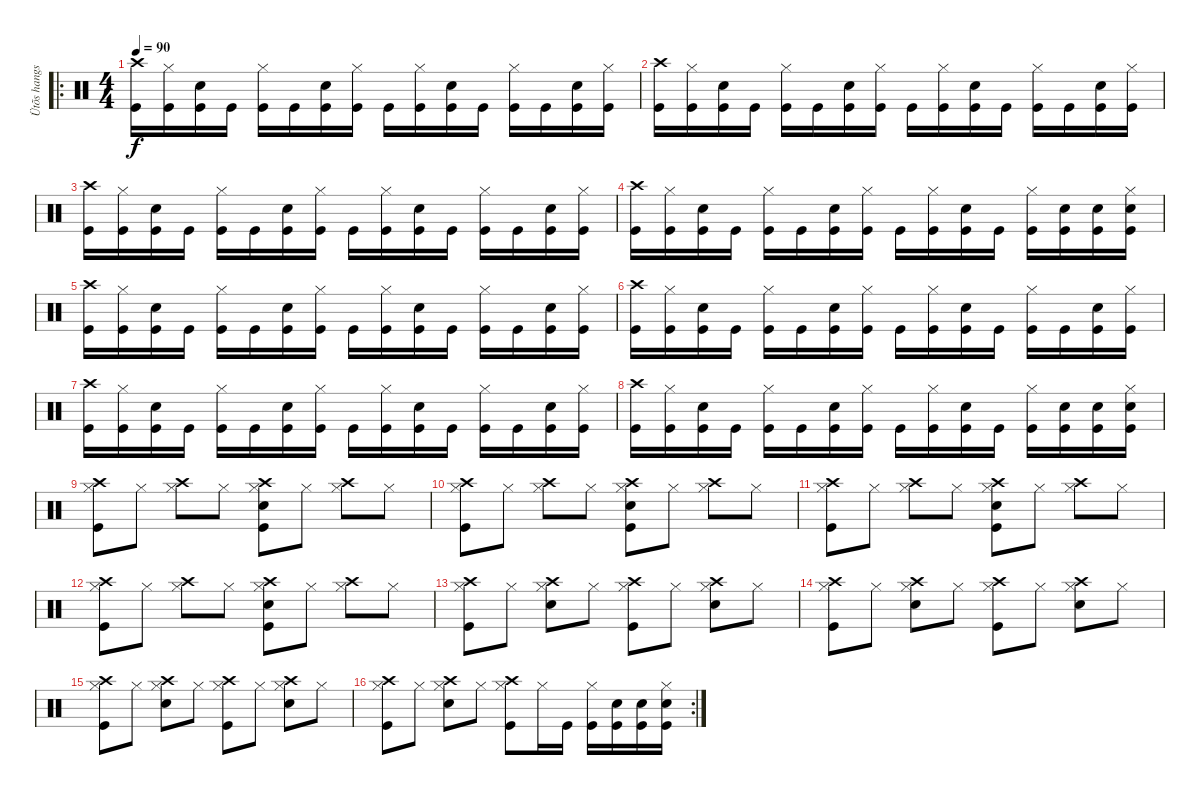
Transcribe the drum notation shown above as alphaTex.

\track ("Ütõs hangszer" "Ütõs hangs") {instrument percussion}
\staff {score}
\articulation defaults
\ro
\ts (4 4)
\tempo 90
\clef neutral
\ks c
("Crash high (hit)" "Kick (hit)").16{dy f} ("Hi-Hat (closed)" "Kick (hit)").16 ("Electric Snare (hit)" "Kick (hit)").16 "Kick (hit)".16 ("Hi-Hat (closed)" "Kick (hit)").16 "Kick (hit)".16 ("Electric Snare (hit)" "Kick (hit)").16 ("Hi-Hat (closed)" "Kick (hit)").16 "Kick (hit)".16 ("Hi-Hat (closed)" "Kick (hit)").16 ("Electric Snare (hit)" "Kick (hit)").16 "Kick (hit)".16 ("Hi-Hat (closed)" "Kick (hit)").16 "Kick (hit)".16 ("Electric Snare (hit)" "Kick (hit)").16 ("Hi-Hat (closed)" "Kick (hit)").16 |
("Crash high (hit)" "Kick (hit)").16 ("Hi-Hat (closed)" "Kick (hit)").16 ("Electric Snare (hit)" "Kick (hit)").16 "Kick (hit)".16 ("Hi-Hat (closed)" "Kick (hit)").16 "Kick (hit)".16 ("Electric Snare (hit)" "Kick (hit)").16 ("Hi-Hat (closed)" "Kick (hit)").16 "Kick (hit)".16 ("Hi-Hat (closed)" "Kick (hit)").16 ("Electric Snare (hit)" "Kick (hit)").16 "Kick (hit)".16 ("Hi-Hat (closed)" "Kick (hit)").16 "Kick (hit)".16 ("Electric Snare (hit)" "Kick (hit)").16 ("Hi-Hat (closed)" "Kick (hit)").16 |
("Crash high (hit)" "Kick (hit)").16 ("Hi-Hat (closed)" "Kick (hit)").16 ("Electric Snare (hit)" "Kick (hit)").16 "Kick (hit)".16 ("Hi-Hat (closed)" "Kick (hit)").16 "Kick (hit)".16 ("Electric Snare (hit)" "Kick (hit)").16 ("Hi-Hat (closed)" "Kick (hit)").16 "Kick (hit)".16 ("Hi-Hat (closed)" "Kick (hit)").16 ("Electric Snare (hit)" "Kick (hit)").16 "Kick (hit)".16 ("Hi-Hat (closed)" "Kick (hit)").16 "Kick (hit)".16 ("Electric Snare (hit)" "Kick (hit)").16 ("Hi-Hat (closed)" "Kick (hit)").16 |
("Crash high (hit)" "Kick (hit)").16 ("Hi-Hat (closed)" "Kick (hit)").16 ("Electric Snare (hit)" "Kick (hit)").16 "Kick (hit)".16 ("Hi-Hat (closed)" "Kick (hit)").16 "Kick (hit)".16 ("Electric Snare (hit)" "Kick (hit)").16 ("Hi-Hat (closed)" "Kick (hit)").16 "Kick (hit)".16 ("Hi-Hat (closed)" "Kick (hit)").16 ("Electric Snare (hit)" "Kick (hit)").16 "Kick (hit)".16 ("Hi-Hat (closed)" "Kick (hit)").16 ("Electric Snare (hit)" "Kick (hit)").16 ("Electric Snare (hit)" "Kick (hit)").16 ("Hi-Hat (closed)" "Electric Snare (hit)" "Kick (hit)").16 |
("Crash high (hit)" "Kick (hit)").16 ("Hi-Hat (closed)" "Kick (hit)").16 ("Electric Snare (hit)" "Kick (hit)").16 "Kick (hit)".16 ("Hi-Hat (closed)" "Kick (hit)").16 "Kick (hit)".16 ("Electric Snare (hit)" "Kick (hit)").16 ("Hi-Hat (closed)" "Kick (hit)").16 "Kick (hit)".16 ("Hi-Hat (closed)" "Kick (hit)").16 ("Electric Snare (hit)" "Kick (hit)").16 "Kick (hit)".16 ("Hi-Hat (closed)" "Kick (hit)").16 "Kick (hit)".16 ("Electric Snare (hit)" "Kick (hit)").16 ("Hi-Hat (closed)" "Kick (hit)").16 |
("Crash high (hit)" "Kick (hit)").16 ("Hi-Hat (closed)" "Kick (hit)").16 ("Electric Snare (hit)" "Kick (hit)").16 "Kick (hit)".16 ("Hi-Hat (closed)" "Kick (hit)").16 "Kick (hit)".16 ("Electric Snare (hit)" "Kick (hit)").16 ("Hi-Hat (closed)" "Kick (hit)").16 "Kick (hit)".16 ("Hi-Hat (closed)" "Kick (hit)").16 ("Electric Snare (hit)" "Kick (hit)").16 "Kick (hit)".16 ("Hi-Hat (closed)" "Kick (hit)").16 "Kick (hit)".16 ("Electric Snare (hit)" "Kick (hit)").16 ("Hi-Hat (closed)" "Kick (hit)").16 |
("Crash high (hit)" "Kick (hit)").16 ("Hi-Hat (closed)" "Kick (hit)").16 ("Electric Snare (hit)" "Kick (hit)").16 "Kick (hit)".16 ("Hi-Hat (closed)" "Kick (hit)").16 "Kick (hit)".16 ("Electric Snare (hit)" "Kick (hit)").16 ("Hi-Hat (closed)" "Kick (hit)").16 "Kick (hit)".16 ("Hi-Hat (closed)" "Kick (hit)").16 ("Electric Snare (hit)" "Kick (hit)").16 "Kick (hit)".16 ("Hi-Hat (closed)" "Kick (hit)").16 "Kick (hit)".16 ("Electric Snare (hit)" "Kick (hit)").16 ("Hi-Hat (closed)" "Kick (hit)").16 |
("Crash high (hit)" "Kick (hit)").16 ("Hi-Hat (closed)" "Kick (hit)").16 ("Electric Snare (hit)" "Kick (hit)").16 "Kick (hit)".16 ("Hi-Hat (closed)" "Kick (hit)").16 "Kick (hit)".16 ("Electric Snare (hit)" "Kick (hit)").16 ("Hi-Hat (closed)" "Kick (hit)").16 "Kick (hit)".16 ("Hi-Hat (closed)" "Kick (hit)").16 ("Electric Snare (hit)" "Kick (hit)").16 "Kick (hit)".16 ("Hi-Hat (closed)" "Kick (hit)").16 ("Electric Snare (hit)" "Kick (hit)").16 ("Electric Snare (hit)" "Kick (hit)").16 ("Hi-Hat (closed)" "Electric Snare (hit)" "Kick (hit)").16 |
("Hi-Hat (closed)" "Crash high (hit)" "Kick (hit)").8 "Hi-Hat (closed)".8 ("Hi-Hat (closed)" "Crash high (hit)").8 "Hi-Hat (closed)".8 ("Hi-Hat (closed)" "Electric Snare (hit)" "Crash high (hit)" "Kick (hit)").8 "Hi-Hat (closed)".8 ("Hi-Hat (closed)" "Crash high (hit)").8 "Hi-Hat (closed)".8 |
("Hi-Hat (closed)" "Crash high (hit)" "Kick (hit)").8 "Hi-Hat (closed)".8 ("Hi-Hat (closed)" "Crash high (hit)").8 "Hi-Hat (closed)".8 ("Hi-Hat (closed)" "Electric Snare (hit)" "Crash high (hit)" "Kick (hit)").8 "Hi-Hat (closed)".8 ("Hi-Hat (closed)" "Crash high (hit)").8 "Hi-Hat (closed)".8 |
("Hi-Hat (closed)" "Crash high (hit)" "Kick (hit)").8 "Hi-Hat (closed)".8 ("Hi-Hat (closed)" "Crash high (hit)").8 "Hi-Hat (closed)".8 ("Hi-Hat (closed)" "Electric Snare (hit)" "Crash high (hit)" "Kick (hit)").8 "Hi-Hat (closed)".8 ("Hi-Hat (closed)" "Crash high (hit)").8 "Hi-Hat (closed)".8 |
("Hi-Hat (closed)" "Crash high (hit)" "Kick (hit)").8 "Hi-Hat (closed)".8 ("Hi-Hat (closed)" "Crash high (hit)").8 "Hi-Hat (closed)".8 ("Hi-Hat (closed)" "Electric Snare (hit)" "Crash high (hit)" "Kick (hit)").8 "Hi-Hat (closed)".8 ("Hi-Hat (closed)" "Crash high (hit)").8 "Hi-Hat (closed)".8 |
("Hi-Hat (closed)" "Crash high (hit)" "Kick (hit)").8 "Hi-Hat (closed)".8 ("Hi-Hat (closed)" "Electric Snare (hit)" "Crash high (hit)").8 "Hi-Hat (closed)".8 ("Hi-Hat (closed)" "Crash high (hit)" "Kick (hit)").8 "Hi-Hat (closed)".8 ("Hi-Hat (closed)" "Electric Snare (hit)" "Crash high (hit)").8 "Hi-Hat (closed)".8 |
("Hi-Hat (closed)" "Crash high (hit)" "Kick (hit)").8 "Hi-Hat (closed)".8 ("Hi-Hat (closed)" "Electric Snare (hit)" "Crash high (hit)").8 "Hi-Hat (closed)".8 ("Hi-Hat (closed)" "Crash high (hit)" "Kick (hit)").8 "Hi-Hat (closed)".8 ("Hi-Hat (closed)" "Electric Snare (hit)" "Crash high (hit)").8 "Hi-Hat (closed)".8 |
("Hi-Hat (closed)" "Crash high (hit)" "Kick (hit)").8 "Hi-Hat (closed)".8 ("Hi-Hat (closed)" "Electric Snare (hit)" "Crash high (hit)").8 "Hi-Hat (closed)".8 ("Hi-Hat (closed)" "Crash high (hit)" "Kick (hit)").8 "Hi-Hat (closed)".8 ("Hi-Hat (closed)" "Electric Snare (hit)" "Crash high (hit)").8 "Hi-Hat (closed)".8 |
\rc 2
("Hi-Hat (closed)" "Crash high (hit)" "Kick (hit)").8 "Hi-Hat (closed)".8 ("Hi-Hat (closed)" "Electric Snare (hit)" "Crash high (hit)").8 "Hi-Hat (closed)".8 ("Hi-Hat (closed)" "Crash high (hit)" "Kick (hit)").8 "Hi-Hat (closed)".16 "Kick (hit)".16 ("Hi-Hat (closed)" "Kick (hit)").16 ("Electric Snare (hit)" "Kick (hit)").16 ("Electric Snare (hit)" "Kick (hit)").16 ("Hi-Hat (closed)" "Electric Snare (hit)" "Kick (hit)").16
